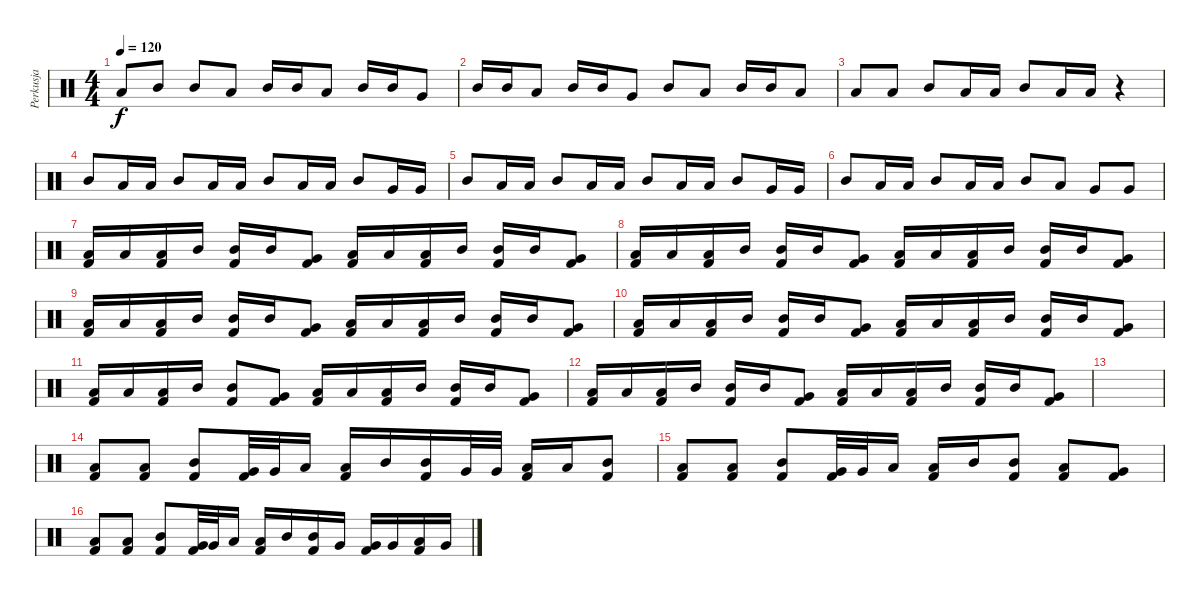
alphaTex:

\track ("Perkusja" "Perkusja") {instrument percussion}
\staff {score}
\articulation defaults
\ts (4 4)
\tempo 120
\clef neutral
\ks c "Low Tom (hit)".8{dy f} "Mid Tom (hit)".8 "Mid Tom (hit)".8 "Low Tom (hit)".8 "Mid Tom (hit)".16 "Mid Tom (hit)".16 "Low Tom (hit)".8 "Mid Tom (hit)".16 "Mid Tom (hit)".16 "Very Low Tom (hit)".8
|
"Mid Tom (hit)".16 "Mid Tom (hit)".16 "Low Tom (hit)".8 "Mid Tom (hit)".16 "Mid Tom (hit)".16 "Very Low Tom (hit)".8 "Mid Tom (hit)".8 "Low Tom (hit)".8 "Mid Tom (hit)".16 "Mid Tom (hit)".16 "Low Tom (hit)".8 |
"Low Tom (hit)".8 "Low Tom (hit)".8 "Mid Tom (hit)".8 "Low Tom (hit)".16 "Low Tom (hit)".16 "Mid Tom (hit)".8 "Low Tom (hit)".16 "Low Tom (hit)".16 r.4 |
"Mid Tom (hit)".8 "Low Tom (hit)".16 "Low Tom (hit)".16 "Mid Tom (hit)".8 "Low Tom (hit)".16 "Low Tom (hit)".16 "Mid Tom (hit)".8 "Low Tom (hit)".16 "Low Tom (hit)".16 "Mid Tom (hit)".8 "Very Low Tom (hit)".16 "Very Low Tom (hit)".16 |
"Mid Tom (hit)".8 "Low Tom (hit)".16 "Low Tom (hit)".16 "Mid Tom (hit)".8 "Low Tom (hit)".16 "Low Tom (hit)".16 "Mid Tom (hit)".8 "Low Tom (hit)".16 "Low Tom (hit)".16 "Mid Tom (hit)".8 "Very Low Tom (hit)".16 "Very Low Tom (hit)".16 |
"Mid Tom (hit)".8 "Low Tom (hit)".16 "Low Tom (hit)".16 "Mid Tom (hit)".8 "Low Tom (hit)".16 "Low Tom (hit)".16 "Mid Tom (hit)".8 "Low Tom (hit)".8 "Very Low Tom (hit)".8 "Very Low Tom (hit)".8 |
("Low Tom (hit)" "Kick (hit) 2").16 "Low Tom (hit)".16 ("Low Tom (hit)" "Kick (hit) 2").16 "Mid Tom (hit)".16 ("Mid Tom (hit)" "Kick (hit) 2").16 "Mid Tom (hit)".16 ("Very Low Tom (hit)" "Kick (hit) 2").8 ("Low Tom (hit)" "Kick (hit) 2").16 "Low Tom (hit)".16 ("Low Tom (hit)" "Kick (hit) 2").16 "Mid Tom (hit)".16 ("Mid Tom (hit)" "Kick (hit) 2").16 "Mid Tom (hit)".16 ("Very Low Tom (hit)" "Kick (hit) 2").8 |
("Low Tom (hit)" "Kick (hit) 2").16 "Low Tom (hit)".16 ("Low Tom (hit)" "Kick (hit) 2").16 "Mid Tom (hit)".16 ("Mid Tom (hit)" "Kick (hit) 2").16 "Mid Tom (hit)".16 ("Very Low Tom (hit)" "Kick (hit) 2").8 ("Low Tom (hit)" "Kick (hit) 2").16 "Low Tom (hit)".16 ("Low Tom (hit)" "Kick (hit) 2").16 "Mid Tom (hit)".16 ("Mid Tom (hit)" "Kick (hit) 2").16 "Mid Tom (hit)".16 ("Very Low Tom (hit)" "Kick (hit) 2").8 |
("Low Tom (hit)" "Kick (hit) 2").16 "Low Tom (hit)".16 ("Low Tom (hit)" "Kick (hit) 2").16 "Mid Tom (hit)".16 ("Mid Tom (hit)" "Kick (hit) 2").16 "Mid Tom (hit)".16 ("Very Low Tom (hit)" "Kick (hit) 2").8 ("Low Tom (hit)" "Kick (hit) 2").16 "Low Tom (hit)".16 ("Low Tom (hit)" "Kick (hit) 2").16 "Mid Tom (hit)".16 ("Mid Tom (hit)" "Kick (hit) 2").16 "Mid Tom (hit)".16 ("Very Low Tom (hit)" "Kick (hit) 2").8 |
("Low Tom (hit)" "Kick (hit) 2").16 "Low Tom (hit)".16 ("Low Tom (hit)" "Kick (hit) 2").16 "Mid Tom (hit)".16 ("Mid Tom (hit)" "Kick (hit) 2").16 "Mid Tom (hit)".16 ("Very Low Tom (hit)" "Kick (hit) 2").8 ("Low Tom (hit)" "Kick (hit) 2").16 "Low Tom (hit)".16 ("Low Tom (hit)" "Kick (hit) 2").16 "Mid Tom (hit)".16 ("Mid Tom (hit)" "Kick (hit) 2").16 "Mid Tom (hit)".16 ("Very Low Tom (hit)" "Kick (hit) 2").8 |
("Low Tom (hit)" "Kick (hit) 2").16 "Low Tom (hit)".16 ("Low Tom (hit)" "Kick (hit) 2").16 "Mid Tom (hit)".16 ("Mid Tom (hit)" "Kick (hit) 2").8 ("Very Low Tom (hit)" "Kick (hit) 2").8 ("Low Tom (hit)" "Kick (hit) 2").16 "Low Tom (hit)".16 ("Low Tom (hit)" "Kick (hit) 2").16 "Mid Tom (hit)".16 ("Mid Tom (hit)" "Kick (hit) 2").16 "Mid Tom (hit)".16 ("Very Low Tom (hit)" "Kick (hit) 2").8 |
("Low Tom (hit)" "Kick (hit) 2").16 "Low Tom (hit)".16 ("Low Tom (hit)" "Kick (hit) 2").16 "Mid Tom (hit)".16 ("Mid Tom (hit)" "Kick (hit) 2").16 "Mid Tom (hit)".16 ("Very Low Tom (hit)" "Kick (hit) 2").8 ("Low Tom (hit)" "Kick (hit) 2").16 "Low Tom (hit)".16 ("Low Tom (hit)" "Kick (hit) 2").16 "Mid Tom (hit)".16 ("Mid Tom (hit)" "Kick (hit) 2").16 "Mid Tom (hit)".16 ("Very Low Tom (hit)" "Kick (hit) 2").8 |
|
("Low Tom (hit)" "Kick (hit) 2").8 ("Low Tom (hit)" "Kick (hit) 2").8 ("Mid Tom (hit)" "Kick (hit) 2").8 ("Very Low Tom (hit)" "Kick (hit) 2").32 "Very Low Tom (hit)".32 "Low Tom (hit)".16 ("Low Tom (hit)" "Kick (hit) 2").16 "Mid Tom (hit)".16 ("Mid Tom (hit)" "Kick (hit) 2").16 "Very Low Tom (hit)".32 "Very Low Tom (hit)".32 ("Low Tom (hit)" "Kick (hit) 2").16 "Low Tom (hit)".16 ("Mid Tom (hit)" "Kick (hit) 2").8 |
("Low Tom (hit)" "Kick (hit) 2").8 ("Low Tom (hit)" "Kick (hit) 2").8 ("Mid Tom (hit)" "Kick (hit) 2").8 ("Very Low Tom (hit)" "Kick (hit) 2").32 "Very Low Tom (hit)".32 "Low Tom (hit)".16 ("Low Tom (hit)" "Kick (hit) 2").16 "Mid Tom (hit)".16 ("Mid Tom (hit)" "Kick (hit) 2").8 ("Low Tom (hit)" "Kick (hit) 2").8 ("Very Low Tom (hit)" "Kick (hit) 2").8 |
("Low Tom (hit)" "Kick (hit) 2").8 ("Low Tom (hit)" "Kick (hit) 2").8 ("Mid Tom (hit)" "Kick (hit) 2").8 ("Very Low Tom (hit)" "Kick (hit) 2").32 "Very Low Tom (hit)".32 "Low Tom (hit)".16 ("Low Tom (hit)" "Kick (hit) 2").16 "Mid Tom (hit)".16 ("Mid Tom (hit)" "Kick (hit) 2").16 "Very Low Tom (hit)".16 ("Very Low Tom (hit)" "Kick (hit) 2").16 "Very Low Tom (hit)".16 ("Low Tom (hit)" "Kick (hit) 2").16 "Very Low Tom (hit)".16
